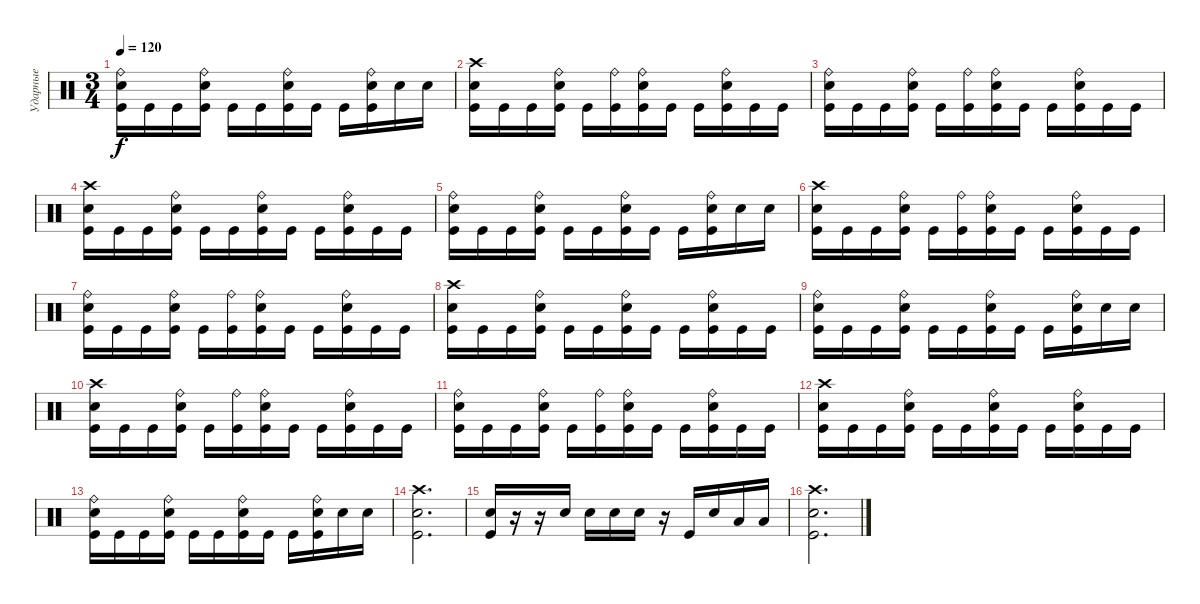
\track ("Ударные" "Ударные") {instrument percussion}
\staff {score}
\articulation defaults
\ts (3 4)
\tempo 120
\clef neutral
\ks c
("Ride (bell)" "Electric Snare (hit)" "Kick (hit)").16{dy f} "Kick (hit)".16 "Kick (hit)".16 ("Ride (bell)" "Electric Snare (hit)" "Kick (hit)").16 "Kick (hit)".16 "Kick (hit)".16 ("Ride (bell)" "Electric Snare (hit)" "Kick (hit)").16 "Kick (hit)".16 "Kick (hit)".16 ("Ride (bell)" "Electric Snare (hit)" "Kick (hit)").16 "Electric Snare (hit)".16 "Electric Snare (hit)".16 |
("Crash high (hit)" "Electric Snare (hit)" "Kick (hit)").16 "Kick (hit)".16 "Kick (hit)".16 ("Ride (bell)" "Electric Snare (hit)" "Kick (hit)").16 "Kick (hit)".16 ("Ride (bell)" "Kick (hit)").16 ("Ride (bell)" "Electric Snare (hit)" "Kick (hit)").16 "Kick (hit)".16 "Kick (hit)".16 ("Ride (bell)" "Electric Snare (hit)" "Kick (hit)").16 "Kick (hit)".16 "Kick (hit)".16 |
("Ride (bell)" "Electric Snare (hit)" "Kick (hit)").16 "Kick (hit)".16 "Kick (hit)".16 ("Ride (bell)" "Electric Snare (hit)" "Kick (hit)").16 "Kick (hit)".16 ("Ride (bell)" "Kick (hit)").16 ("Ride (bell)" "Electric Snare (hit)" "Kick (hit)").16 "Kick (hit)".16 "Kick (hit)".16 ("Ride (bell)" "Electric Snare (hit)" "Kick (hit)").16 "Kick (hit)".16 "Kick (hit)".16 |
("Crash high (hit)" "Electric Snare (hit)" "Kick (hit)").16 "Kick (hit)".16 "Kick (hit)".16 ("Ride (bell)" "Electric Snare (hit)" "Kick (hit)").16 "Kick (hit)".16 "Kick (hit)".16 ("Ride (bell)" "Electric Snare (hit)" "Kick (hit)").16 "Kick (hit)".16 "Kick (hit)".16 ("Ride (bell)" "Electric Snare (hit)" "Kick (hit)").16 "Kick (hit)".16 "Kick (hit)".16 |
("Ride (bell)" "Electric Snare (hit)" "Kick (hit)").16 "Kick (hit)".16 "Kick (hit)".16 ("Ride (bell)" "Electric Snare (hit)" "Kick (hit)").16 "Kick (hit)".16 "Kick (hit)".16 ("Ride (bell)" "Electric Snare (hit)" "Kick (hit)").16 "Kick (hit)".16 "Kick (hit)".16 ("Ride (bell)" "Electric Snare (hit)" "Kick (hit)").16 "Electric Snare (hit)".16 "Electric Snare (hit)".16 |
("Crash high (hit)" "Electric Snare (hit)" "Kick (hit)").16 "Kick (hit)".16 "Kick (hit)".16 ("Ride (bell)" "Electric Snare (hit)" "Kick (hit)").16 "Kick (hit)".16 ("Ride (bell)" "Kick (hit)").16 ("Ride (bell)" "Electric Snare (hit)" "Kick (hit)").16 "Kick (hit)".16 "Kick (hit)".16 ("Ride (bell)" "Electric Snare (hit)" "Kick (hit)").16 "Kick (hit)".16 "Kick (hit)".16 |
("Ride (bell)" "Electric Snare (hit)" "Kick (hit)").16 "Kick (hit)".16 "Kick (hit)".16 ("Ride (bell)" "Electric Snare (hit)" "Kick (hit)").16 "Kick (hit)".16 ("Ride (bell)" "Kick (hit)").16 ("Ride (bell)" "Electric Snare (hit)" "Kick (hit)").16 "Kick (hit)".16 "Kick (hit)".16 ("Ride (bell)" "Electric Snare (hit)" "Kick (hit)").16 "Kick (hit)".16 "Kick (hit)".16 |
("Crash high (hit)" "Electric Snare (hit)" "Kick (hit)").16 "Kick (hit)".16 "Kick (hit)".16 ("Ride (bell)" "Electric Snare (hit)" "Kick (hit)").16 "Kick (hit)".16 "Kick (hit)".16 ("Ride (bell)" "Electric Snare (hit)" "Kick (hit)").16 "Kick (hit)".16 "Kick (hit)".16 ("Ride (bell)" "Electric Snare (hit)" "Kick (hit)").16 "Kick (hit)".16 "Kick (hit)".16 |
("Ride (bell)" "Electric Snare (hit)" "Kick (hit)").16 "Kick (hit)".16 "Kick (hit)".16 ("Ride (bell)" "Electric Snare (hit)" "Kick (hit)").16 "Kick (hit)".16 "Kick (hit)".16 ("Ride (bell)" "Electric Snare (hit)" "Kick (hit)").16 "Kick (hit)".16 "Kick (hit)".16 ("Ride (bell)" "Electric Snare (hit)" "Kick (hit)").16 "Electric Snare (hit)".16 "Electric Snare (hit)".16 |
("Crash high (hit)" "Electric Snare (hit)" "Kick (hit)").16 "Kick (hit)".16 "Kick (hit)".16 ("Ride (bell)" "Electric Snare (hit)" "Kick (hit)").16 "Kick (hit)".16 ("Ride (bell)" "Kick (hit)").16 ("Ride (bell)" "Electric Snare (hit)" "Kick (hit)").16 "Kick (hit)".16 "Kick (hit)".16 ("Ride (bell)" "Electric Snare (hit)" "Kick (hit)").16 "Kick (hit)".16 "Kick (hit)".16 |
("Ride (bell)" "Electric Snare (hit)" "Kick (hit)").16 "Kick (hit)".16 "Kick (hit)".16 ("Ride (bell)" "Electric Snare (hit)" "Kick (hit)").16 "Kick (hit)".16 ("Ride (bell)" "Kick (hit)").16 ("Ride (bell)" "Electric Snare (hit)" "Kick (hit)").16 "Kick (hit)".16 "Kick (hit)".16 ("Ride (bell)" "Electric Snare (hit)" "Kick (hit)").16 "Kick (hit)".16 "Kick (hit)".16 |
("Crash high (hit)" "Electric Snare (hit)" "Kick (hit)").16 "Kick (hit)".16 "Kick (hit)".16 ("Ride (bell)" "Electric Snare (hit)" "Kick (hit)").16 "Kick (hit)".16 "Kick (hit)".16 ("Ride (bell)" "Electric Snare (hit)" "Kick (hit)").16 "Kick (hit)".16 "Kick (hit)".16 ("Ride (bell)" "Electric Snare (hit)" "Kick (hit)").16 "Kick (hit)".16 "Kick (hit)".16 |
("Ride (bell)" "Electric Snare (hit)" "Kick (hit)").16 "Kick (hit)".16 "Kick (hit)".16 ("Ride (bell)" "Electric Snare (hit)" "Kick (hit)").16 "Kick (hit)".16 "Kick (hit)".16 ("Ride (bell)" "Electric Snare (hit)" "Kick (hit)").16 "Kick (hit)".16 "Kick (hit)".16 ("Ride (bell)" "Electric Snare (hit)" "Kick (hit)").16 "Electric Snare (hit)".16 "Electric Snare (hit)".16 |
("Crash high (hit)" "Electric Snare (hit)" "Kick (hit)").2{d} |
("Electric Snare (hit)" "Kick (hit)").16 r.16 r.16 "Electric Snare (hit)".16 "Electric Snare (hit)".16 "Electric Snare (hit)".16 "Electric Snare (hit)".16 r.16 "Kick (hit)".16 "Electric Snare (hit)".16 "Low Tom (hit)".16 "Low Tom (hit)".16 |
("Crash high (hit)" "Electric Snare (hit)" "Kick (hit)").2{d}
